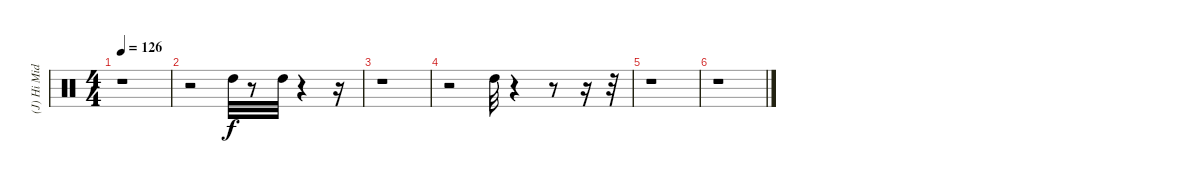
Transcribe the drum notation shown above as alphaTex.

\track ("(J) Hi Mid Tom" "(J) Hi Mid") {instrument percussion}
\staff {score}
\articulation defaults
\ts (4 4)
\tempo 126
\clef neutral
\ks c
r.1{dy f} |
r.2 "High Tom (hit)".32 r.8 "High Tom (hit)".32 r.4 r.16 |
r.1 |
r.2 "High Tom (hit)".32 r.4 r.8 r.16 r.32 |
r.1 |
r.1
